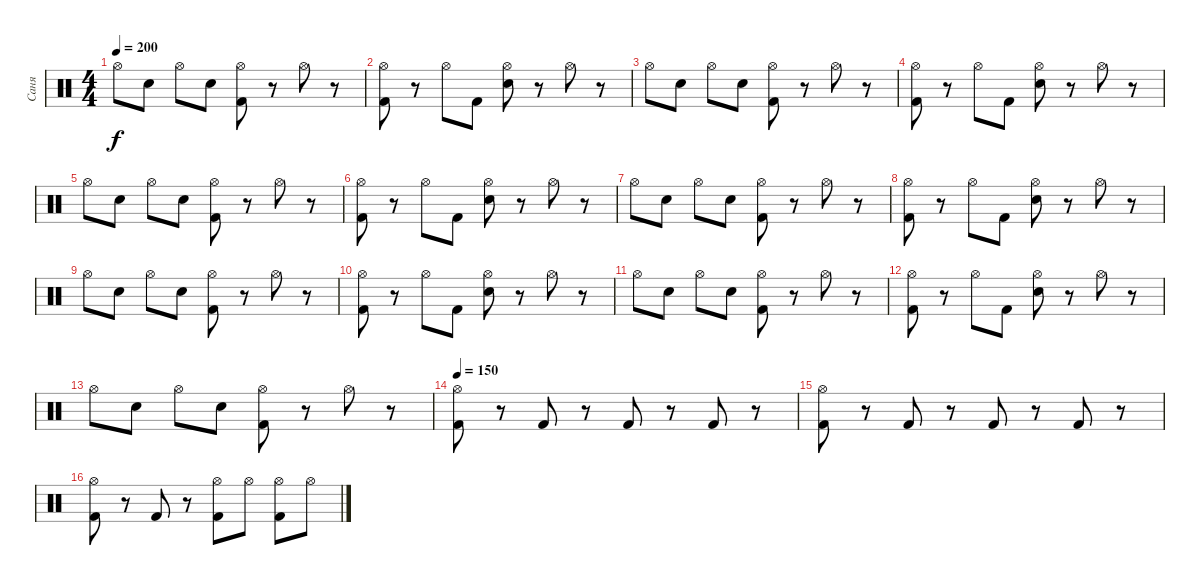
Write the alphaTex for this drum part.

\track ("Саня" "Саня") {instrument percussion}
\staff {score}
\articulation defaults
\ts (4 4)
\tempo 200
\clef neutral
\ks c "Hi-Hat (open)".8{dy f} "Electric Snare (hit)".8 "Hi-Hat (open)".8 "Electric Snare (hit)".8
("Hi-Hat (open)" "Kick (hit) 2").8 r.8 "Hi-Hat (open)".8 r.8 |
("Hi-Hat (open)" "Kick (hit) 2").8 r.8 "Hi-Hat (open)".8 "Kick (hit) 2".8 ("Hi-Hat (open)" "Electric Snare (hit)").8 r.8 "Hi-Hat (open)".8 r.8 |
"Hi-Hat (open)".8 "Electric Snare (hit)".8 "Hi-Hat (open)".8 "Electric Snare (hit)".8 ("Hi-Hat (open)" "Kick (hit) 2").8 r.8 "Hi-Hat (open)".8 r.8 |
("Hi-Hat (open)" "Kick (hit) 2").8 r.8 "Hi-Hat (open)".8 "Kick (hit) 2".8 ("Hi-Hat (open)" "Electric Snare (hit)").8 r.8 "Hi-Hat (open)".8 r.8 |
"Hi-Hat (open)".8 "Electric Snare (hit)".8 "Hi-Hat (open)".8 "Electric Snare (hit)".8 ("Hi-Hat (open)" "Kick (hit) 2").8 r.8 "Hi-Hat (open)".8 r.8 |
("Hi-Hat (open)" "Kick (hit) 2").8 r.8 "Hi-Hat (open)".8 "Kick (hit) 2".8 ("Hi-Hat (open)" "Electric Snare (hit)").8 r.8 "Hi-Hat (open)".8 r.8 |
"Hi-Hat (open)".8 "Electric Snare (hit)".8 "Hi-Hat (open)".8 "Electric Snare (hit)".8 ("Hi-Hat (open)" "Kick (hit) 2").8 r.8 "Hi-Hat (open)".8 r.8 |
("Hi-Hat (open)" "Kick (hit) 2").8 r.8 "Hi-Hat (open)".8 "Kick (hit) 2".8 ("Hi-Hat (open)" "Electric Snare (hit)").8 r.8 "Hi-Hat (open)".8 r.8 |
"Hi-Hat (open)".8 "Electric Snare (hit)".8 "Hi-Hat (open)".8 "Electric Snare (hit)".8 ("Hi-Hat (open)" "Kick (hit) 2").8 r.8 "Hi-Hat (open)".8 r.8 |
("Hi-Hat (open)" "Kick (hit) 2").8 r.8 "Hi-Hat (open)".8 "Kick (hit) 2".8 ("Hi-Hat (open)" "Electric Snare (hit)").8 r.8 "Hi-Hat (open)".8 r.8 |
"Hi-Hat (open)".8 "Electric Snare (hit)".8 "Hi-Hat (open)".8 "Electric Snare (hit)".8 ("Hi-Hat (open)" "Kick (hit) 2").8 r.8 "Hi-Hat (open)".8 r.8 |
("Hi-Hat (open)" "Kick (hit) 2").8 r.8 "Hi-Hat (open)".8 "Kick (hit) 2".8 ("Hi-Hat (open)" "Electric Snare (hit)").8 r.8 "Hi-Hat (open)".8 r.8 |
"Hi-Hat (open)".8 "Electric Snare (hit)".8 "Hi-Hat (open)".8 "Electric Snare (hit)".8 ("Hi-Hat (open)" "Kick (hit) 2").8 r.8 "Hi-Hat (open)".8 r.8 |
\tempo 150
("Hi-Hat (open)" "Kick (hit) 2").8 r.8 "Kick (hit) 2".8 r.8 "Kick (hit) 2".8 r.8 "Kick (hit) 2".8 r.8 |
("Hi-Hat (open)" "Kick (hit) 2").8 r.8 "Kick (hit) 2".8 r.8 "Kick (hit) 2".8 r.8 "Kick (hit) 2".8 r.8 |
("Hi-Hat (open)" "Kick (hit) 2").8 r.8 "Kick (hit) 2".8 r.8 ("Hi-Hat (open)" "Kick (hit) 2").8 "Hi-Hat (open)".8 ("Hi-Hat (open)" "Kick (hit) 2").8 "Hi-Hat (open)".8
